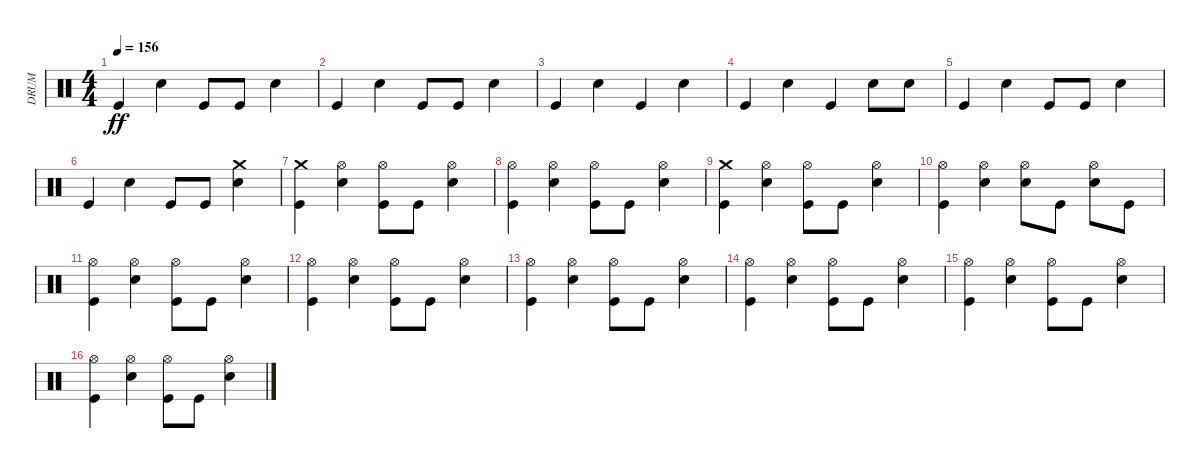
\track ("DRUM" "DRUM") {instrument percussion}
\staff {score}
\articulation defaults
\ts (4 4)
\tempo 156
\clef neutral
\ks c "Kick (hit)".4{dy ff} "Snare (hit) 2".4 "Kick (hit)".8 "Kick (hit)".8 "Snare (hit) 2".4
|
"Kick (hit)".4 "Snare (hit) 2".4 "Kick (hit)".8 "Kick (hit)".8 "Snare (hit) 2".4 |
"Kick (hit)".4 "Snare (hit) 2".4 "Kick (hit)".4 "Snare (hit) 2".4 |
"Kick (hit)".4 "Snare (hit) 2".4 "Kick (hit)".4 "Snare (hit) 2".8 "Snare (hit) 2".8 |
"Kick (hit)".4 "Snare (hit) 2".4 "Kick (hit)".8 "Kick (hit)".8 "Snare (hit) 2".4 |
"Kick (hit)".4 "Snare (hit) 2".4 "Kick (hit)".8 "Kick (hit)".8 ("Crash medium (hit)" "Snare (hit) 2").4 |
("Crash medium (hit)" "Kick (hit)").4 ("Hi-Hat (open)" "Snare (hit) 2").4 ("Hi-Hat (open)" "Kick (hit)").8 "Kick (hit)".8 ("Hi-Hat (open)" "Snare (hit) 2").4 |
("Hi-Hat (open)" "Kick (hit)").4 ("Hi-Hat (open)" "Snare (hit) 2").4 ("Hi-Hat (open)" "Kick (hit)").8 "Kick (hit)".8 ("Hi-Hat (open)" "Snare (hit) 2").4 |
("Crash medium (hit)" "Kick (hit)").4 ("Hi-Hat (open)" "Snare (hit) 2").4 ("Hi-Hat (open)" "Kick (hit)").8 "Kick (hit)".8 ("Hi-Hat (open)" "Snare (hit) 2").4 |
("Hi-Hat (open)" "Kick (hit)").4 ("Hi-Hat (open)" "Snare (hit) 2").4 ("Hi-Hat (open)" "Snare (hit) 2").8 "Kick (hit)".8 ("Hi-Hat (open)" "Snare (hit) 2").8 "Kick (hit)".8 |
("Hi-Hat (open)" "Kick (hit)").4 ("Hi-Hat (open)" "Snare (hit) 2").4 ("Hi-Hat (open)" "Kick (hit)").8 "Kick (hit)".8 ("Hi-Hat (open)" "Snare (hit) 2").4 |
("Hi-Hat (open)" "Kick (hit)").4 ("Hi-Hat (open)" "Snare (hit) 2").4 ("Hi-Hat (open)" "Kick (hit)").8 "Kick (hit)".8 ("Hi-Hat (open)" "Snare (hit) 2").4 |
("Hi-Hat (open)" "Kick (hit)").4 ("Hi-Hat (open)" "Snare (hit) 2").4 ("Hi-Hat (open)" "Kick (hit)").8 "Kick (hit)".8 ("Hi-Hat (open)" "Snare (hit) 2").4 |
("Hi-Hat (open)" "Kick (hit)").4 ("Hi-Hat (open)" "Snare (hit) 2").4 ("Hi-Hat (open)" "Kick (hit)").8 "Kick (hit)".8 ("Hi-Hat (open)" "Snare (hit) 2").4 |
("Hi-Hat (open)" "Kick (hit)").4 ("Hi-Hat (open)" "Snare (hit) 2").4 ("Hi-Hat (open)" "Kick (hit)").8 "Kick (hit)".8 ("Hi-Hat (open)" "Snare (hit) 2").4 |
("Hi-Hat (open)" "Kick (hit)").4 ("Hi-Hat (open)" "Snare (hit) 2").4 ("Hi-Hat (open)" "Kick (hit)").8 "Kick (hit)".8 ("Hi-Hat (open)" "Snare (hit) 2").4
